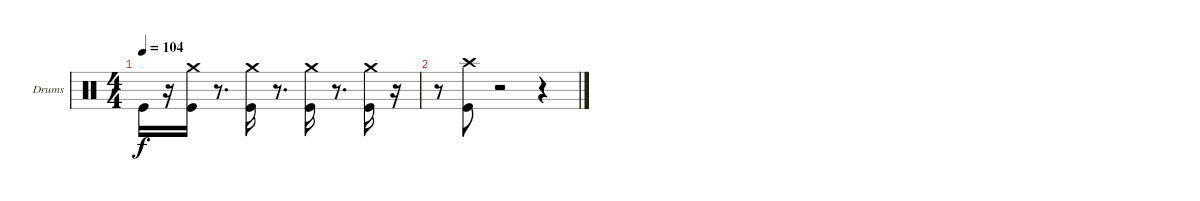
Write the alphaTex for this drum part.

\bracketExtendMode groupsimilarinstruments
\firstSystemTrackNameOrientation horizontal
\otherSystemsTrackNameOrientation horizontal
\track ("Нюта" "Drums") {instrument percussion}
\staff {score}
\articulation defaults
\ts (4 4)
\tempo 104
\clef neutral
\ks c "Kick (hit)".16{dy f}
r.16 ("Kick (hit)" "Crash medium (hit)").16 r.8{d} ("Kick (hit)" "Crash medium (hit)").16 r.8{d} ("Kick (hit)" "Crash medium (hit)").16 r.8{d} ("Kick (hit)" "Crash medium (hit)").16 r.16 |
r.8 ("Crash high (hit)" "Kick (hit)").8 r.2 r.4
